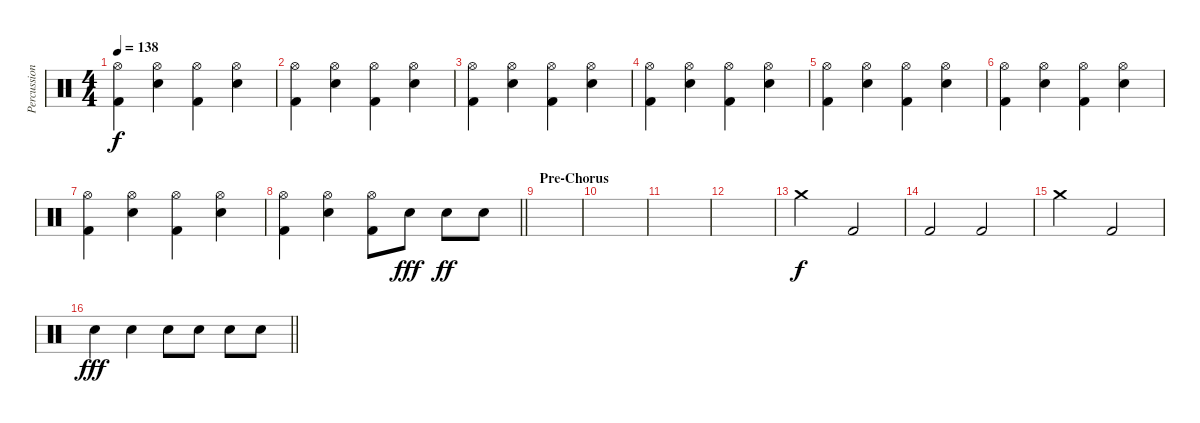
\track ("Percussion" "Percussion") {instrument percussion}
\staff {score}
\articulation defaults
\ts (4 4)
\tempo 138
\clef neutral
\ks c
("Hi-Hat (open)" "Kick (hit) 2").4{dy f} ("Snare (hit) 2" "Hi-Hat (open)").4 ("Hi-Hat (open)" "Kick (hit) 2").4 ("Snare (hit) 2" "Hi-Hat (open)").4 |
("Hi-Hat (open)" "Kick (hit) 2").4 ("Snare (hit) 2" "Hi-Hat (open)").4 ("Hi-Hat (open)" "Kick (hit) 2").4 ("Snare (hit) 2" "Hi-Hat (open)").4 |
("Hi-Hat (open)" "Kick (hit) 2").4 ("Snare (hit) 2" "Hi-Hat (open)").4 ("Hi-Hat (open)" "Kick (hit) 2").4 ("Snare (hit) 2" "Hi-Hat (open)").4 |
("Hi-Hat (open)" "Kick (hit) 2").4 ("Snare (hit) 2" "Hi-Hat (open)").4 ("Hi-Hat (open)" "Kick (hit) 2").4 ("Snare (hit) 2" "Hi-Hat (open)").4 |
("Hi-Hat (open)" "Kick (hit) 2").4 ("Snare (hit) 2" "Hi-Hat (open)").4 ("Hi-Hat (open)" "Kick (hit) 2").4 ("Snare (hit) 2" "Hi-Hat (open)").4 |
("Hi-Hat (open)" "Kick (hit) 2").4 ("Snare (hit) 2" "Hi-Hat (open)").4 ("Hi-Hat (open)" "Kick (hit) 2").4 ("Snare (hit) 2" "Hi-Hat (open)").4 |
("Hi-Hat (open)" "Kick (hit) 2").4 ("Snare (hit) 2" "Hi-Hat (open)").4 ("Hi-Hat (open)" "Kick (hit) 2").4 ("Snare (hit) 2" "Hi-Hat (open)").4 |
\barLineRight lightlight
("Hi-Hat (open)" "Kick (hit) 2").4 ("Snare (hit) 2" "Hi-Hat (open)").4 ("Hi-Hat (open)" "Kick (hit) 2").8 "Snare (hit) 2".8{dy fff} "Snare (hit) 2".8{dy ff} "Snare (hit) 2".8 |
\section ("" "Pre-Chorus")
|
|
|
|
"Crash medium (hit)".2{dy f} "Kick (hit) 2".2 |
"Kick (hit) 2".2 "Kick (hit) 2".2 |
"Crash medium (hit)".2 "Kick (hit) 2".2 |
\barLineRight lightlight "Snare (hit) 2".4{dy fff} "Snare (hit) 2".4 "Snare (hit) 2".8 "Snare (hit) 2".8 "Snare (hit) 2".8 "Snare (hit) 2".8
